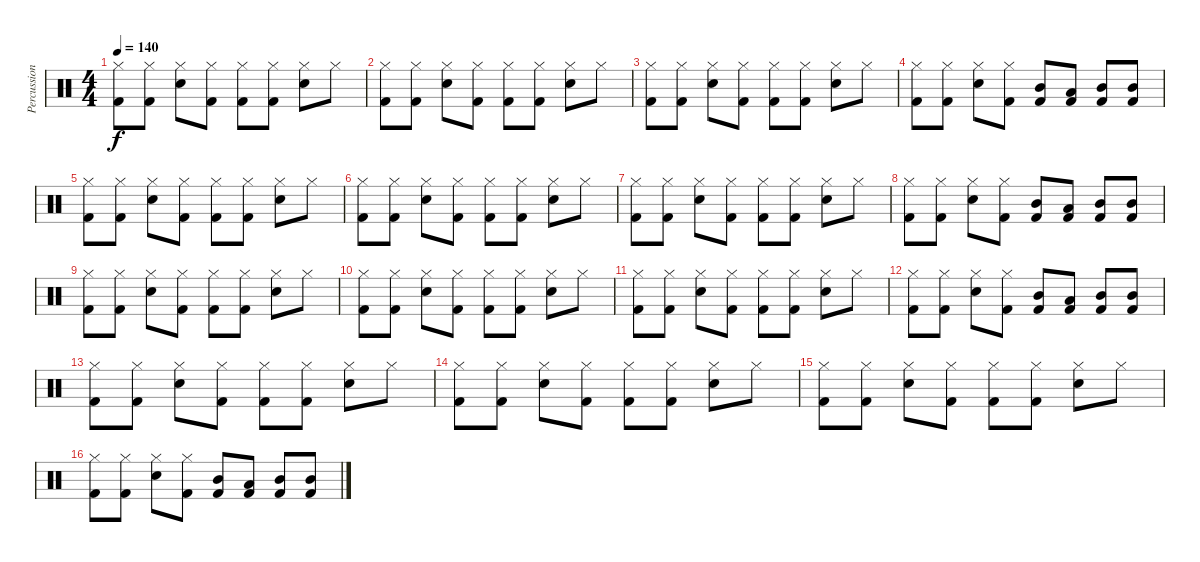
\track ("Percussion" "Percussion") {instrument percussion}
\staff {score}
\articulation defaults
\ts (4 4)
\tempo 140
\clef neutral
\ks c
("Hi-Hat (closed)" "Kick (hit) 2").8{dy f} ("Hi-Hat (closed)" "Kick (hit) 2").8 ("Hi-Hat (closed)" "Snare (hit) 2").8 ("Hi-Hat (closed)" "Kick (hit) 2").8 ("Hi-Hat (closed)" "Kick (hit) 2").8 ("Hi-Hat (closed)" "Kick (hit) 2").8 ("Hi-Hat (closed)" "Snare (hit) 2").8 "Hi-Hat (closed)".8 |
("Hi-Hat (closed)" "Kick (hit) 2").8 ("Hi-Hat (closed)" "Kick (hit) 2").8 ("Hi-Hat (closed)" "Snare (hit) 2").8 ("Hi-Hat (closed)" "Kick (hit) 2").8 ("Hi-Hat (closed)" "Kick (hit) 2").8 ("Hi-Hat (closed)" "Kick (hit) 2").8 ("Hi-Hat (closed)" "Snare (hit) 2").8 "Hi-Hat (closed)".8 |
("Hi-Hat (closed)" "Kick (hit) 2").8 ("Hi-Hat (closed)" "Kick (hit) 2").8 ("Hi-Hat (closed)" "Snare (hit) 2").8 ("Hi-Hat (closed)" "Kick (hit) 2").8 ("Hi-Hat (closed)" "Kick (hit) 2").8 ("Hi-Hat (closed)" "Kick (hit) 2").8 ("Hi-Hat (closed)" "Snare (hit) 2").8 "Hi-Hat (closed)".8 |
("Hi-Hat (closed)" "Kick (hit) 2").8 ("Hi-Hat (closed)" "Kick (hit) 2").8 ("Hi-Hat (closed)" "Snare (hit) 2").8 ("Hi-Hat (closed)" "Kick (hit) 2").8 ("Mid Tom (hit)" "Kick (hit) 2").8 ("Low Tom (hit)" "Kick (hit) 2").8 ("Mid Tom (hit)" "Kick (hit) 2").8 ("Mid Tom (hit)" "Kick (hit) 2").8 |
("Hi-Hat (closed)" "Kick (hit) 2").8 ("Hi-Hat (closed)" "Kick (hit) 2").8 ("Hi-Hat (closed)" "Snare (hit) 2").8 ("Hi-Hat (closed)" "Kick (hit) 2").8 ("Hi-Hat (closed)" "Kick (hit) 2").8 ("Hi-Hat (closed)" "Kick (hit) 2").8 ("Hi-Hat (closed)" "Snare (hit) 2").8 "Hi-Hat (closed)".8 |
("Hi-Hat (closed)" "Kick (hit) 2").8 ("Hi-Hat (closed)" "Kick (hit) 2").8 ("Hi-Hat (closed)" "Snare (hit) 2").8 ("Hi-Hat (closed)" "Kick (hit) 2").8 ("Hi-Hat (closed)" "Kick (hit) 2").8 ("Hi-Hat (closed)" "Kick (hit) 2").8 ("Hi-Hat (closed)" "Snare (hit) 2").8 "Hi-Hat (closed)".8 |
("Hi-Hat (closed)" "Kick (hit) 2").8 ("Hi-Hat (closed)" "Kick (hit) 2").8 ("Hi-Hat (closed)" "Snare (hit) 2").8 ("Hi-Hat (closed)" "Kick (hit) 2").8 ("Hi-Hat (closed)" "Kick (hit) 2").8 ("Hi-Hat (closed)" "Kick (hit) 2").8 ("Hi-Hat (closed)" "Snare (hit) 2").8 "Hi-Hat (closed)".8 |
("Hi-Hat (closed)" "Kick (hit) 2").8 ("Hi-Hat (closed)" "Kick (hit) 2").8 ("Hi-Hat (closed)" "Snare (hit) 2").8 ("Hi-Hat (closed)" "Kick (hit) 2").8 ("Mid Tom (hit)" "Kick (hit) 2").8 ("Low Tom (hit)" "Kick (hit) 2").8 ("Mid Tom (hit)" "Kick (hit) 2").8 ("Mid Tom (hit)" "Kick (hit) 2").8 |
("Hi-Hat (closed)" "Kick (hit) 2").8 ("Hi-Hat (closed)" "Kick (hit) 2").8 ("Hi-Hat (closed)" "Snare (hit) 2").8 ("Hi-Hat (closed)" "Kick (hit) 2").8 ("Hi-Hat (closed)" "Kick (hit) 2").8 ("Hi-Hat (closed)" "Kick (hit) 2").8 ("Hi-Hat (closed)" "Snare (hit) 2").8 "Hi-Hat (closed)".8 |
("Hi-Hat (closed)" "Kick (hit) 2").8 ("Hi-Hat (closed)" "Kick (hit) 2").8 ("Hi-Hat (closed)" "Snare (hit) 2").8 ("Hi-Hat (closed)" "Kick (hit) 2").8 ("Hi-Hat (closed)" "Kick (hit) 2").8 ("Hi-Hat (closed)" "Kick (hit) 2").8 ("Hi-Hat (closed)" "Snare (hit) 2").8 "Hi-Hat (closed)".8 |
("Hi-Hat (closed)" "Kick (hit) 2").8 ("Hi-Hat (closed)" "Kick (hit) 2").8 ("Hi-Hat (closed)" "Snare (hit) 2").8 ("Hi-Hat (closed)" "Kick (hit) 2").8 ("Hi-Hat (closed)" "Kick (hit) 2").8 ("Hi-Hat (closed)" "Kick (hit) 2").8 ("Hi-Hat (closed)" "Snare (hit) 2").8 "Hi-Hat (closed)".8 |
("Hi-Hat (closed)" "Kick (hit) 2").8 ("Hi-Hat (closed)" "Kick (hit) 2").8 ("Hi-Hat (closed)" "Snare (hit) 2").8 ("Hi-Hat (closed)" "Kick (hit) 2").8 ("Mid Tom (hit)" "Kick (hit) 2").8 ("Low Tom (hit)" "Kick (hit) 2").8 ("Mid Tom (hit)" "Kick (hit) 2").8 ("Mid Tom (hit)" "Kick (hit) 2").8 |
("Hi-Hat (closed)" "Kick (hit) 2").8 ("Hi-Hat (closed)" "Kick (hit) 2").8 ("Hi-Hat (closed)" "Snare (hit) 2").8 ("Hi-Hat (closed)" "Kick (hit) 2").8 ("Hi-Hat (closed)" "Kick (hit) 2").8 ("Hi-Hat (closed)" "Kick (hit) 2").8 ("Hi-Hat (closed)" "Snare (hit) 2").8 "Hi-Hat (closed)".8 |
("Hi-Hat (closed)" "Kick (hit) 2").8 ("Hi-Hat (closed)" "Kick (hit) 2").8 ("Hi-Hat (closed)" "Snare (hit) 2").8 ("Hi-Hat (closed)" "Kick (hit) 2").8 ("Hi-Hat (closed)" "Kick (hit) 2").8 ("Hi-Hat (closed)" "Kick (hit) 2").8 ("Hi-Hat (closed)" "Snare (hit) 2").8 "Hi-Hat (closed)".8 |
("Hi-Hat (closed)" "Kick (hit) 2").8 ("Hi-Hat (closed)" "Kick (hit) 2").8 ("Hi-Hat (closed)" "Snare (hit) 2").8 ("Hi-Hat (closed)" "Kick (hit) 2").8 ("Hi-Hat (closed)" "Kick (hit) 2").8 ("Hi-Hat (closed)" "Kick (hit) 2").8 ("Hi-Hat (closed)" "Snare (hit) 2").8 "Hi-Hat (closed)".8 |
("Hi-Hat (closed)" "Kick (hit) 2").8 ("Hi-Hat (closed)" "Kick (hit) 2").8 ("Hi-Hat (closed)" "Snare (hit) 2").8 ("Hi-Hat (closed)" "Kick (hit) 2").8 ("Mid Tom (hit)" "Kick (hit) 2").8 ("Low Tom (hit)" "Kick (hit) 2").8 ("Mid Tom (hit)" "Kick (hit) 2").8 ("Mid Tom (hit)" "Kick (hit) 2").8
